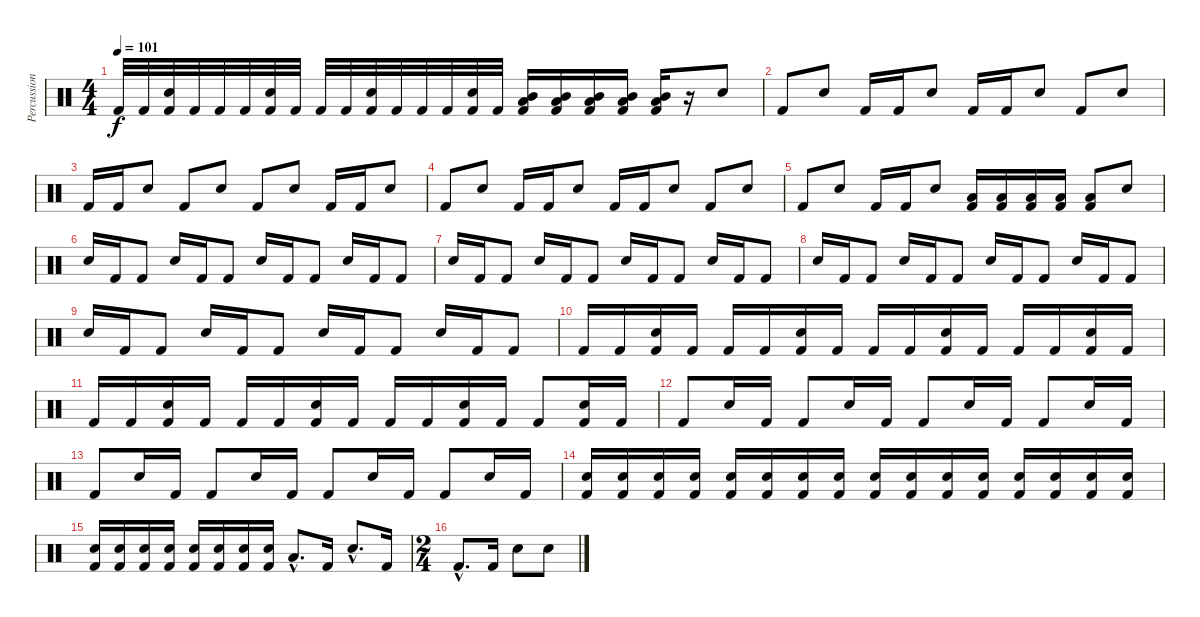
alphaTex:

\track ("Percussion" "Percussion") {instrument percussion}
\staff {score}
\articulation defaults
\ts (4 4)
\tempo 101
\clef neutral
\ks c "Kick (hit) 2".32{dy f} "Kick (hit) 2".32
("Snare (hit) 2" "Kick (hit) 2").32 "Kick (hit) 2".32 "Kick (hit) 2".32 "Kick (hit) 2".32 ("Snare (hit) 2" "Kick (hit) 2").32 "Kick (hit) 2".32 "Kick (hit) 2".32 "Kick (hit) 2".32 ("Snare (hit) 2" "Kick (hit) 2").32 "Kick (hit) 2".32 "Kick (hit) 2".32 "Kick (hit) 2".32 ("Snare (hit) 2" "Kick (hit) 2").32 "Kick (hit) 2".32 ("Mid Tom (hit)" "Low Tom (hit)" "Kick (hit) 2").16 ("Mid Tom (hit)" "Low Tom (hit)" "Kick (hit) 2").16 ("Mid Tom (hit)" "Low Tom (hit)" "Kick (hit) 2").16 ("Mid Tom (hit)" "Low Tom (hit)" "Kick (hit) 2").16 ("Mid Tom (hit)" "Low Tom (hit)" "Kick (hit) 2").16 r.16 "Snare (hit) 2".8 |
"Kick (hit) 2".8 "Snare (hit) 2".8 "Kick (hit) 2".16 "Kick (hit) 2".16 "Snare (hit) 2".8 "Kick (hit) 2".16 "Kick (hit) 2".16 "Snare (hit) 2".8 "Kick (hit) 2".8 "Snare (hit) 2".8 |
"Kick (hit) 2".16 "Kick (hit) 2".16 "Snare (hit) 2".8 "Kick (hit) 2".8 "Snare (hit) 2".8 "Kick (hit) 2".8 "Snare (hit) 2".8 "Kick (hit) 2".16 "Kick (hit) 2".16 "Snare (hit) 2".8 |
"Kick (hit) 2".8 "Snare (hit) 2".8 "Kick (hit) 2".16 "Kick (hit) 2".16 "Snare (hit) 2".8 "Kick (hit) 2".16 "Kick (hit) 2".16 "Snare (hit) 2".8 "Kick (hit) 2".8 "Snare (hit) 2".8 |
"Kick (hit) 2".8 "Snare (hit) 2".8 "Kick (hit) 2".16 "Kick (hit) 2".16 "Snare (hit) 2".8 ("Low Tom (hit)" "Kick (hit) 2").16 ("Low Tom (hit)" "Kick (hit) 2").16 ("Low Tom (hit)" "Kick (hit) 2").16 ("Low Tom (hit)" "Kick (hit) 2").16 ("Low Tom (hit)" "Kick (hit) 2").8 "Snare (hit) 2".8 |
"Snare (hit) 2".16 "Kick (hit) 2".16 "Kick (hit) 2".8 "Snare (hit) 2".16 "Kick (hit) 2".16 "Kick (hit) 2".8 "Snare (hit) 2".16 "Kick (hit) 2".16 "Kick (hit) 2".8 "Snare (hit) 2".16 "Kick (hit) 2".16 "Kick (hit) 2".8 |
"Snare (hit) 2".16 "Kick (hit) 2".16 "Kick (hit) 2".8 "Snare (hit) 2".16 "Kick (hit) 2".16 "Kick (hit) 2".8 "Snare (hit) 2".16 "Kick (hit) 2".16 "Kick (hit) 2".8 "Snare (hit) 2".16 "Kick (hit) 2".16 "Kick (hit) 2".8 |
"Snare (hit) 2".16 "Kick (hit) 2".16 "Kick (hit) 2".8 "Snare (hit) 2".16 "Kick (hit) 2".16 "Kick (hit) 2".8 "Snare (hit) 2".16 "Kick (hit) 2".16 "Kick (hit) 2".8 "Snare (hit) 2".16 "Kick (hit) 2".16 "Kick (hit) 2".8 |
"Snare (hit) 2".16 "Kick (hit) 2".16 "Kick (hit) 2".8 "Snare (hit) 2".16 "Kick (hit) 2".16 "Kick (hit) 2".8 "Snare (hit) 2".16 "Kick (hit) 2".16 "Kick (hit) 2".8 "Snare (hit) 2".16 "Kick (hit) 2".16 "Kick (hit) 2".8 |
"Kick (hit) 2".16 "Kick (hit) 2".16 ("Snare (hit) 2" "Kick (hit) 2").16 "Kick (hit) 2".16 "Kick (hit) 2".16 "Kick (hit) 2".16 ("Snare (hit) 2" "Kick (hit) 2").16 "Kick (hit) 2".16 "Kick (hit) 2".16 "Kick (hit) 2".16 ("Snare (hit) 2" "Kick (hit) 2").16 "Kick (hit) 2".16 "Kick (hit) 2".16 "Kick (hit) 2".16 ("Snare (hit) 2" "Kick (hit) 2").16 "Kick (hit) 2".16 |
"Kick (hit) 2".16 "Kick (hit) 2".16 ("Snare (hit) 2" "Kick (hit) 2").16 "Kick (hit) 2".16 "Kick (hit) 2".16 "Kick (hit) 2".16 ("Snare (hit) 2" "Kick (hit) 2").16 "Kick (hit) 2".16 "Kick (hit) 2".16 "Kick (hit) 2".16 ("Snare (hit) 2" "Kick (hit) 2").16 "Kick (hit) 2".16 "Kick (hit) 2".8 ("Snare (hit) 2" "Kick (hit) 2").16 "Kick (hit) 2".16 |
"Kick (hit) 2".8 "Snare (hit) 2".16 "Kick (hit) 2".16 "Kick (hit) 2".8 "Snare (hit) 2".16 "Kick (hit) 2".16 "Kick (hit) 2".8 "Snare (hit) 2".16 "Kick (hit) 2".16 "Kick (hit) 2".8 "Snare (hit) 2".16 "Kick (hit) 2".16 |
"Kick (hit) 2".8 "Snare (hit) 2".16 "Kick (hit) 2".16 "Kick (hit) 2".8 "Snare (hit) 2".16 "Kick (hit) 2".16 "Kick (hit) 2".8 "Snare (hit) 2".16 "Kick (hit) 2".16 "Kick (hit) 2".8 "Snare (hit) 2".16 "Kick (hit) 2".16 |
("Snare (hit) 2" "Kick (hit) 2").16 ("Snare (hit) 2" "Kick (hit) 2").16 ("Snare (hit) 2" "Kick (hit) 2").16 ("Snare (hit) 2" "Kick (hit) 2").16 ("Snare (hit) 2" "Kick (hit) 2").16 ("Snare (hit) 2" "Kick (hit) 2").16 ("Snare (hit) 2" "Kick (hit) 2").16 ("Snare (hit) 2" "Kick (hit) 2").16 ("Snare (hit) 2" "Kick (hit) 2").16 ("Snare (hit) 2" "Kick (hit) 2").16 ("Snare (hit) 2" "Kick (hit) 2").16 ("Snare (hit) 2" "Kick (hit) 2").16 ("Snare (hit) 2" "Kick (hit) 2").16 ("Snare (hit) 2" "Kick (hit) 2").16 ("Snare (hit) 2" "Kick (hit) 2").16 ("Snare (hit) 2" "Kick (hit) 2").16 |
("Snare (hit) 2" "Kick (hit) 2").16 ("Snare (hit) 2" "Kick (hit) 2").16 ("Snare (hit) 2" "Kick (hit) 2").16 ("Snare (hit) 2" "Kick (hit) 2").16 ("Snare (hit) 2" "Kick (hit) 2").16 ("Snare (hit) 2" "Kick (hit) 2").16 ("Snare (hit) 2" "Kick (hit) 2").16 ("Snare (hit) 2" "Kick (hit) 2").16 "Low Tom (hit)"{hac}.8{d} "Kick (hit) 2".16 "Snare (hit) 2"{hac}.8{d} "Kick (hit) 2".16 |
\ts (2 4)
"Kick (hit) 2"{hac}.8{d} "Kick (hit) 2".16 "Snare (hit) 2".8 "Snare (hit) 2".8
